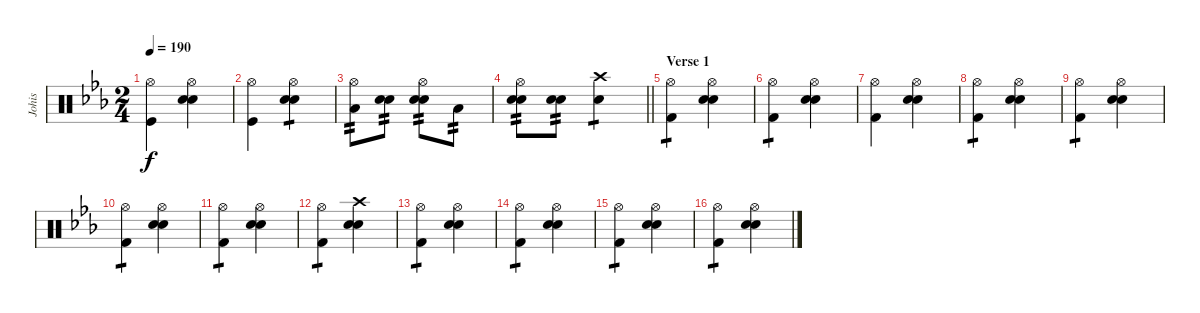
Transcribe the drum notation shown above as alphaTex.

\track ("Johis" "Johis") {instrument percussion}
\staff {score}
\articulation defaults
\ts (2 4)
\tempo 190
\clef neutral
\ks eb
("Hi-Hat (open)" "Kick (hit)").4{dy f} ("Hi-Hat (open)" "Electric Snare (hit)" "Snare (hit) 2").4 |
("Hi-Hat (open)" "Kick (hit)").4 ("Hi-Hat (open)" "Electric Snare (hit)" "Snare (hit) 2").4{tp 1} |
("Hi-Hat (open)" "Low Tom (hit)").8{tp 2} ("Electric Snare (hit)" "Snare (hit) 2").8{tp 2} ("Hi-Hat (open)" "Electric Snare (hit)" "Snare (hit) 2").8{tp 2} "Low Tom (hit)".8{tp 2} |
\barLineRight lightlight
("Hi-Hat (open)" "Electric Snare (hit)" "Snare (hit) 2").8{tp 2} ("Electric Snare (hit)" "Snare (hit) 2").8{tp 2} ("Crash high (hit)" "Snare (hit) 2").4{tp 1} |
\section ("" "Verse 1")
("Hi-Hat (open)" "Kick (hit) 2").4{tp 1} ("Hi-Hat (open)" "Electric Snare (hit)" "Snare (hit) 2").4 |
("Hi-Hat (open)" "Kick (hit) 2").4{tp 1} ("Hi-Hat (open)" "Electric Snare (hit)" "Snare (hit) 2").4 |
("Hi-Hat (open)" "Kick (hit) 2").4 ("Hi-Hat (open)" "Electric Snare (hit)" "Snare (hit) 2").4 |
("Hi-Hat (open)" "Kick (hit) 2").4{tp 1} ("Hi-Hat (open)" "Electric Snare (hit)" "Snare (hit) 2").4 |
("Hi-Hat (open)" "Kick (hit) 2").4{tp 1} ("Hi-Hat (open)" "Electric Snare (hit)" "Snare (hit) 2").4 |
("Hi-Hat (open)" "Kick (hit) 2").4{tp 1} ("Hi-Hat (open)" "Electric Snare (hit)" "Snare (hit) 2").4 |
("Hi-Hat (open)" "Kick (hit) 2").4{tp 1} ("Hi-Hat (open)" "Electric Snare (hit)" "Snare (hit) 2").4 |
("Hi-Hat (open)" "Kick (hit) 2").4{tp 1} ("Crash high (hit)" "Electric Snare (hit)" "Snare (hit) 2").4 |
("Hi-Hat (open)" "Kick (hit) 2").4{tp 1} ("Hi-Hat (open)" "Electric Snare (hit)" "Snare (hit) 2").4 |
("Hi-Hat (open)" "Kick (hit) 2").4{tp 1} ("Hi-Hat (open)" "Electric Snare (hit)" "Snare (hit) 2").4 |
("Hi-Hat (open)" "Kick (hit) 2").4{tp 1} ("Hi-Hat (open)" "Electric Snare (hit)" "Snare (hit) 2").4 |
("Hi-Hat (open)" "Kick (hit) 2").4{tp 1} ("Hi-Hat (open)" "Electric Snare (hit)" "Snare (hit) 2").4
